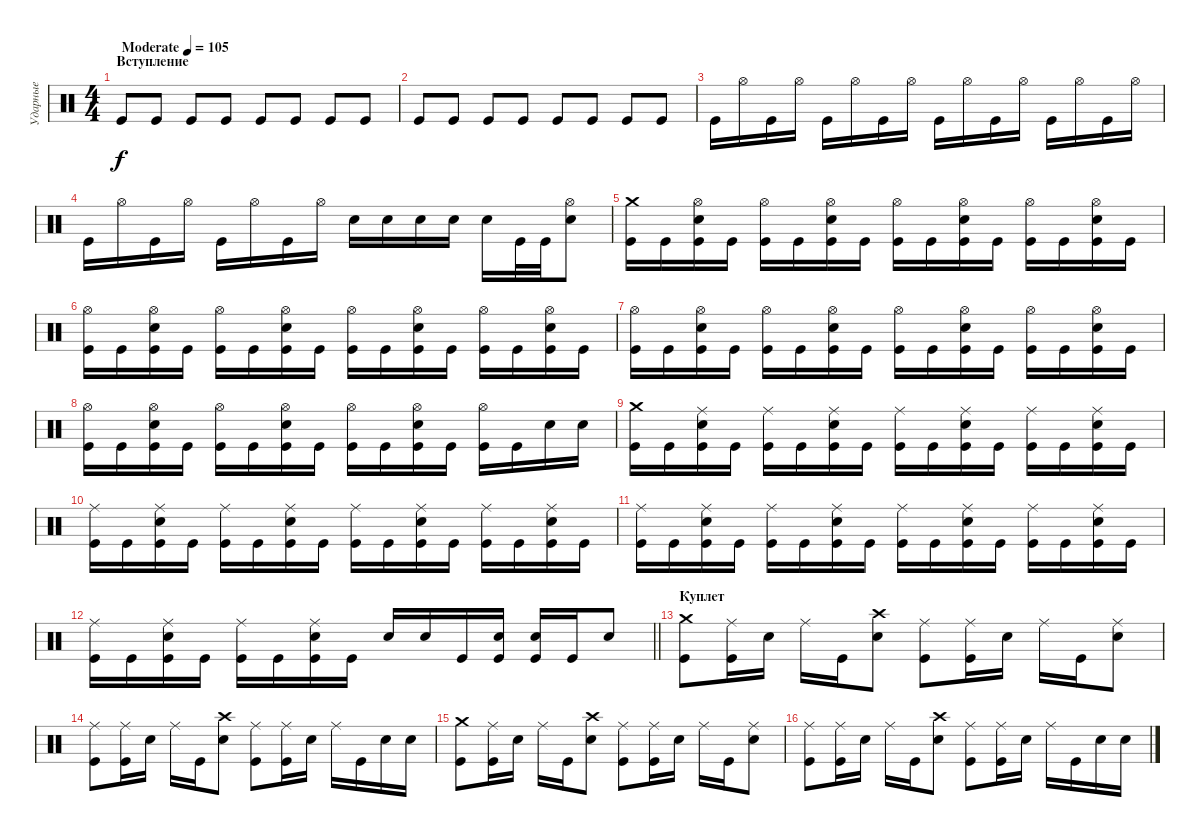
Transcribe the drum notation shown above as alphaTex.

\track ("Ударные" "Ударные") {instrument percussion}
\staff {score}
\articulation defaults
\ts (4 4)
\section ("" "Вступление")
\tempo (105 "Moderate")
\clef neutral
\ks c "Kick (hit)".8{dy f} "Kick (hit)".8 "Kick (hit)".8 "Kick (hit)".8 "Kick (hit)".8 "Kick (hit)".8 "Kick (hit)".8 "Kick (hit)".8
|
"Kick (hit)".8 "Kick (hit)".8 "Kick (hit)".8 "Kick (hit)".8 "Kick (hit)".8 "Kick (hit)".8 "Kick (hit)".8 "Kick (hit)".8 |
"Kick (hit)".16 "Hi-Hat (open)".16 "Kick (hit)".16 "Hi-Hat (open)".16 "Kick (hit)".16 "Hi-Hat (open)".16 "Kick (hit)".16 "Hi-Hat (open)".16 "Kick (hit)".16 "Hi-Hat (open)".16 "Kick (hit)".16 "Hi-Hat (open)".16 "Kick (hit)".16 "Hi-Hat (open)".16 "Kick (hit)".16 "Hi-Hat (open)".16 |
"Kick (hit)".16 "Hi-Hat (open)".16 "Kick (hit)".16 "Hi-Hat (open)".16 "Kick (hit)".16 "Hi-Hat (open)".16 "Kick (hit)".16 "Hi-Hat (open)".16 "Snare (hit) 2".16 "Snare (hit) 2".16 "Snare (hit) 2".16 "Snare (hit) 2".16 "Snare (hit) 2".16 "Kick (hit)".32 "Kick (hit)".32 ("Snare (hit) 2" "Hi-Hat (open)").8 |
("Kick (hit)" "Crash medium (hit)").16 "Kick (hit)".16 ("Kick (hit)" "Snare (hit) 2" "Hi-Hat (open)").16 "Kick (hit)".16 ("Kick (hit)" "Hi-Hat (open)").16 "Kick (hit)".16 ("Kick (hit)" "Snare (hit) 2" "Hi-Hat (open)").16 "Kick (hit)".16 ("Kick (hit)" "Hi-Hat (open)").16 "Kick (hit)".16 ("Kick (hit)" "Snare (hit) 2" "Hi-Hat (open)").16 "Kick (hit)".16 ("Kick (hit)" "Hi-Hat (open)").16 "Kick (hit)".16 ("Kick (hit)" "Snare (hit) 2" "Hi-Hat (open)").16 "Kick (hit)".16 |
("Kick (hit)" "Hi-Hat (open)").16 "Kick (hit)".16 ("Kick (hit)" "Snare (hit) 2" "Hi-Hat (open)").16 "Kick (hit)".16 ("Kick (hit)" "Hi-Hat (open)").16 "Kick (hit)".16 ("Kick (hit)" "Snare (hit) 2" "Hi-Hat (open)").16 "Kick (hit)".16 ("Kick (hit)" "Hi-Hat (open)").16 "Kick (hit)".16 ("Kick (hit)" "Snare (hit) 2" "Hi-Hat (open)").16 "Kick (hit)".16 ("Kick (hit)" "Hi-Hat (open)").16 "Kick (hit)".16 ("Kick (hit)" "Snare (hit) 2" "Hi-Hat (open)").16 "Kick (hit)".16 |
("Kick (hit)" "Hi-Hat (open)").16 "Kick (hit)".16 ("Kick (hit)" "Snare (hit) 2" "Hi-Hat (open)").16 "Kick (hit)".16 ("Kick (hit)" "Hi-Hat (open)").16 "Kick (hit)".16 ("Kick (hit)" "Snare (hit) 2" "Hi-Hat (open)").16 "Kick (hit)".16 ("Kick (hit)" "Hi-Hat (open)").16 "Kick (hit)".16 ("Kick (hit)" "Snare (hit) 2" "Hi-Hat (open)").16 "Kick (hit)".16 ("Kick (hit)" "Hi-Hat (open)").16 "Kick (hit)".16 ("Kick (hit)" "Snare (hit) 2" "Hi-Hat (open)").16 "Kick (hit)".16 |
("Kick (hit)" "Hi-Hat (open)").16 "Kick (hit)".16 ("Kick (hit)" "Snare (hit) 2" "Hi-Hat (open)").16 "Kick (hit)".16 ("Kick (hit)" "Hi-Hat (open)").16 "Kick (hit)".16 ("Kick (hit)" "Snare (hit) 2" "Hi-Hat (open)").16 "Kick (hit)".16 ("Kick (hit)" "Hi-Hat (open)").16 "Kick (hit)".16 ("Kick (hit)" "Snare (hit) 2" "Hi-Hat (open)").16 "Kick (hit)".16 ("Kick (hit)" "Hi-Hat (open)").16 "Kick (hit)".16 "Snare (hit) 2".16 "Snare (hit) 2".16 |
("Kick (hit)" "Crash medium (hit)").16 "Kick (hit)".16 ("Kick (hit)" "Snare (hit) 2" "Ride (middle)").16 "Kick (hit)".16 ("Kick (hit)" "Ride (middle)").16 "Kick (hit)".16 ("Kick (hit)" "Snare (hit) 2" "Ride (middle)").16 "Kick (hit)".16 ("Kick (hit)" "Ride (middle)").16 "Kick (hit)".16 ("Kick (hit)" "Snare (hit) 2" "Ride (middle)").16 "Kick (hit)".16 ("Kick (hit)" "Ride (middle)").16 "Kick (hit)".16 ("Kick (hit)" "Snare (hit) 2" "Ride (middle)").16 "Kick (hit)".16 |
("Kick (hit)" "Ride (middle)").16 "Kick (hit)".16 ("Kick (hit)" "Snare (hit) 2" "Ride (middle)").16 "Kick (hit)".16 ("Kick (hit)" "Ride (middle)").16 "Kick (hit)".16 ("Kick (hit)" "Snare (hit) 2" "Ride (middle)").16 "Kick (hit)".16 ("Kick (hit)" "Ride (middle)").16 "Kick (hit)".16 ("Kick (hit)" "Snare (hit) 2" "Ride (middle)").16 "Kick (hit)".16 ("Kick (hit)" "Ride (middle)").16 "Kick (hit)".16 ("Kick (hit)" "Snare (hit) 2" "Ride (middle)").16 "Kick (hit)".16 |
("Kick (hit)" "Ride (middle)").16 "Kick (hit)".16 ("Kick (hit)" "Snare (hit) 2" "Ride (middle)").16 "Kick (hit)".16 ("Kick (hit)" "Ride (middle)").16 "Kick (hit)".16 ("Kick (hit)" "Snare (hit) 2" "Ride (middle)").16 "Kick (hit)".16 ("Kick (hit)" "Ride (middle)").16 "Kick (hit)".16 ("Kick (hit)" "Snare (hit) 2" "Ride (middle)").16 "Kick (hit)".16 ("Kick (hit)" "Ride (middle)").16 "Kick (hit)".16 ("Kick (hit)" "Snare (hit) 2" "Ride (middle)").16 "Kick (hit)".16 |
\barLineRight lightlight
("Kick (hit)" "Ride (middle)").16 "Kick (hit)".16 ("Kick (hit)" "Snare (hit) 2" "Ride (middle)").16 "Kick (hit)".16 ("Kick (hit)" "Ride (middle)").16 "Kick (hit)".16 ("Kick (hit)" "Snare (hit) 2" "Ride (middle)").16 "Kick (hit)".16 "Snare (hit) 2".16 "Snare (hit) 2".16 "Kick (hit)".16 ("Kick (hit)" "Snare (hit) 2").16 ("Kick (hit)" "Snare (hit) 2").16 "Kick (hit)".16 "Snare (hit) 2".8 |
\section ("" "Куплет")
("Kick (hit)" "Crash medium (hit)").8 ("Kick (hit)" "Ride (middle)").16 "Snare (hit) 2".16 "Ride (middle)".16 "Kick (hit)".16 ("Snare (hit) 2" "Crash high (hit)").8 ("Kick (hit)" "Ride (middle)").8 ("Kick (hit)" "Ride (middle)").16 "Snare (hit) 2".16 "Ride (middle)".16 "Kick (hit)".16 ("Snare (hit) 2" "Ride (middle)").8 |
("Kick (hit)" "Ride (middle)").8 ("Kick (hit)" "Ride (middle)").16 "Snare (hit) 2".16 "Ride (middle)".16 "Kick (hit)".16 ("Snare (hit) 2" "Crash high (hit)").8 ("Kick (hit)" "Ride (middle)").8 ("Kick (hit)" "Ride (middle)").16 "Snare (hit) 2".16 "Ride (middle)".16 "Kick (hit)".16 "Snare (hit) 2".16 "Snare (hit) 2".16 |
("Kick (hit)" "Crash medium (hit)").8 ("Kick (hit)" "Ride (middle)").16 "Snare (hit) 2".16 "Ride (middle)".16 "Kick (hit)".16 ("Snare (hit) 2" "Crash high (hit)").8 ("Kick (hit)" "Ride (middle)").8 ("Kick (hit)" "Ride (middle)").16 "Snare (hit) 2".16 "Ride (middle)".16 "Kick (hit)".16 ("Snare (hit) 2" "Ride (middle)").8 |
("Kick (hit)" "Ride (middle)").8 ("Kick (hit)" "Ride (middle)").16 "Snare (hit) 2".16 "Ride (middle)".16 "Kick (hit)".16 ("Snare (hit) 2" "Crash high (hit)").8 ("Kick (hit)" "Ride (middle)").8 ("Kick (hit)" "Ride (middle)").16 "Snare (hit) 2".16 "Ride (middle)".16 "Kick (hit)".16 "Snare (hit) 2".16 "Snare (hit) 2".16
